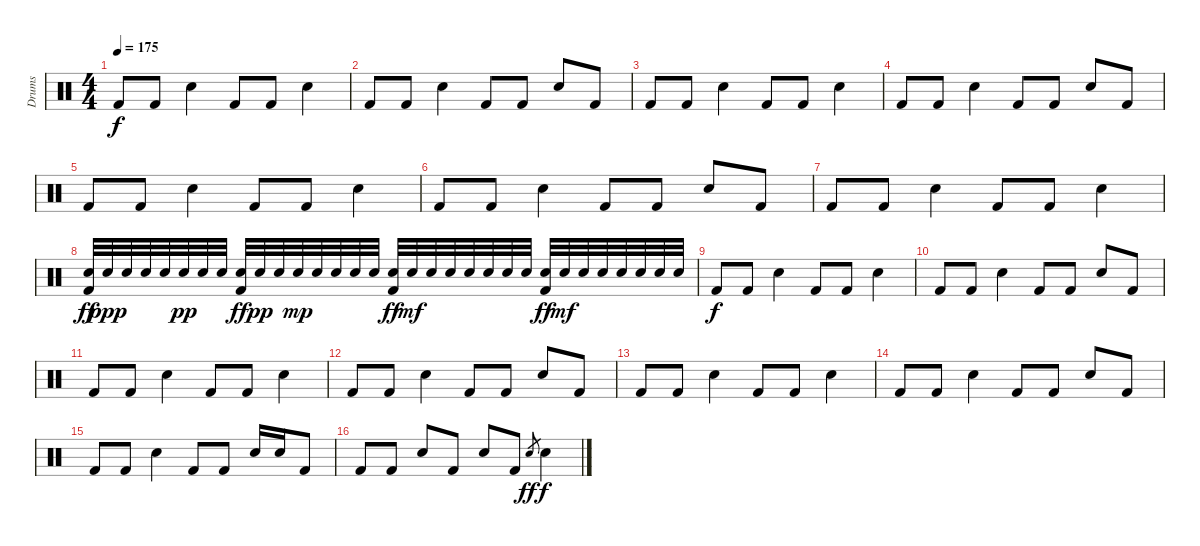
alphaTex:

\track ("Drums" "Drums") {instrument percussion}
\staff {score}
\articulation defaults
\ts (4 4)
\tempo 175
\clef neutral
\ks c "Kick (hit) 2".8{dy f} "Kick (hit) 2".8 "Snare (hit) 2".4 "Kick (hit) 2".8 "Kick (hit) 2".8 "Snare (hit) 2".4
|
"Kick (hit) 2".8 "Kick (hit) 2".8 "Snare (hit) 2".4 "Kick (hit) 2".8 "Kick (hit) 2".8 "Snare (hit) 2".8 "Kick (hit) 2".8 |
"Kick (hit) 2".8 "Kick (hit) 2".8 "Snare (hit) 2".4 "Kick (hit) 2".8 "Kick (hit) 2".8 "Snare (hit) 2".4 |
"Kick (hit) 2".8 "Kick (hit) 2".8 "Snare (hit) 2".4 "Kick (hit) 2".8 "Kick (hit) 2".8 "Snare (hit) 2".8 "Kick (hit) 2".8 |
"Kick (hit) 2".8 "Kick (hit) 2".8 "Snare (hit) 2".4 "Kick (hit) 2".8 "Kick (hit) 2".8 "Snare (hit) 2".4 |
"Kick (hit) 2".8 "Kick (hit) 2".8 "Snare (hit) 2".4 "Kick (hit) 2".8 "Kick (hit) 2".8 "Snare (hit) 2".8 "Kick (hit) 2".8 |
"Kick (hit) 2".8 "Kick (hit) 2".8 "Snare (hit) 2".4 "Kick (hit) 2".8 "Kick (hit) 2".8 "Snare (hit) 2".4 |
("Snare (hit) 2" "Kick (hit) 2").32{dy ff} "Snare (hit) 2".32{dy ppp} "Snare (hit) 2".32 "Snare (hit) 2".32 "Snare (hit) 2".32 "Snare (hit) 2".32{dy pp} "Snare (hit) 2".32 "Snare (hit) 2".32 ("Snare (hit) 2" "Kick (hit) 2").32{dy ff} "Snare (hit) 2".32{dy pp} "Snare (hit) 2".32 "Snare (hit) 2".32{dy mp} "Snare (hit) 2".32 "Snare (hit) 2".32 "Snare (hit) 2".32 "Snare (hit) 2".32 ("Snare (hit) 2" "Kick (hit) 2").32{dy ff} "Snare (hit) 2".32{dy mf} "Snare (hit) 2".32 "Snare (hit) 2".32 "Snare (hit) 2".32 "Snare (hit) 2".32 "Snare (hit) 2".32 "Snare (hit) 2".32 ("Snare (hit) 2" "Kick (hit) 2").32{dy ff} "Snare (hit) 2".32{dy mf} "Snare (hit) 2".32 "Snare (hit) 2".32 "Snare (hit) 2".32 "Snare (hit) 2".32 "Snare (hit) 2".32 "Snare (hit) 2".32 |
"Kick (hit) 2".8{dy f} "Kick (hit) 2".8 "Snare (hit) 2".4 "Kick (hit) 2".8 "Kick (hit) 2".8 "Snare (hit) 2".4 |
"Kick (hit) 2".8 "Kick (hit) 2".8 "Snare (hit) 2".4 "Kick (hit) 2".8 "Kick (hit) 2".8 "Snare (hit) 2".8 "Kick (hit) 2".8 |
"Kick (hit) 2".8 "Kick (hit) 2".8 "Snare (hit) 2".4 "Kick (hit) 2".8 "Kick (hit) 2".8 "Snare (hit) 2".4 |
"Kick (hit) 2".8 "Kick (hit) 2".8 "Snare (hit) 2".4 "Kick (hit) 2".8 "Kick (hit) 2".8 "Snare (hit) 2".8 "Kick (hit) 2".8 |
"Kick (hit) 2".8 "Kick (hit) 2".8 "Snare (hit) 2".4 "Kick (hit) 2".8 "Kick (hit) 2".8 "Snare (hit) 2".4 |
"Kick (hit) 2".8 "Kick (hit) 2".8 "Snare (hit) 2".4 "Kick (hit) 2".8 "Kick (hit) 2".8 "Snare (hit) 2".8 "Kick (hit) 2".8 |
"Kick (hit) 2".8 "Kick (hit) 2".8 "Snare (hit) 2".4 "Kick (hit) 2".8 "Kick (hit) 2".8 "Snare (hit) 2".16 "Snare (hit) 2".16 "Kick (hit) 2".8 |
"Kick (hit) 2".8 "Kick (hit) 2".8 "Snare (hit) 2".8 "Kick (hit) 2".8 "Snare (hit) 2".8 "Kick (hit) 2".8 "Snare (hit) 2".8{gr dy ff} "Snare (hit) 2".4{dy f}
